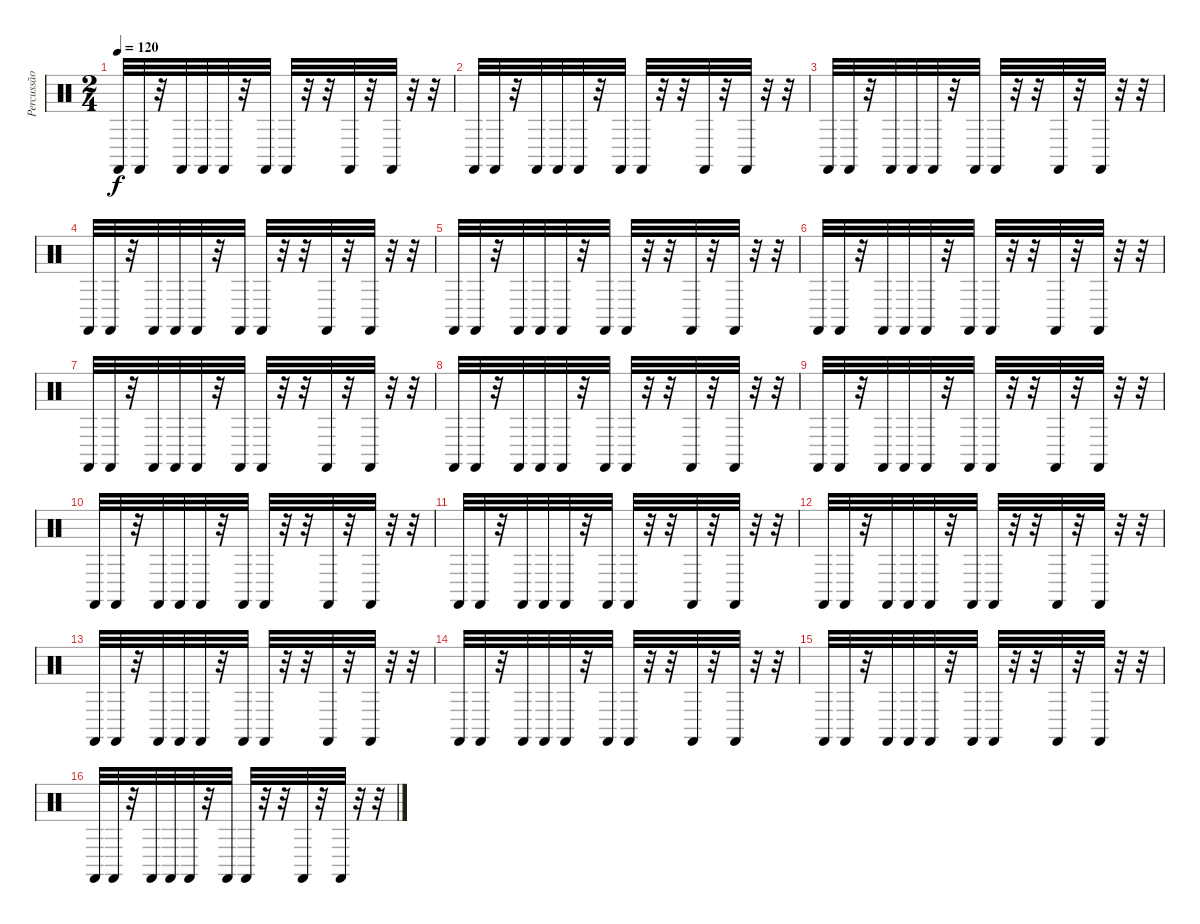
\track ("Percussão" "Percussão") {instrument percussion}
\staff {score}
\articulation defaults
\ts (2 4)
\tempo 120
\clef neutral
\ks c "Castanets (hit)".32{dy f} "Castanets (hit)".32
r.32 "Castanets (hit)".32 "Castanets (hit)".32 "Castanets (hit)".32 r.32 "Castanets (hit)".32 "Castanets (hit)".32 r.32 r.32 "Castanets (hit)".32 r.32 "Castanets (hit)".32 r.32 r.32 |
"Castanets (hit)".32 "Castanets (hit)".32 r.32 "Castanets (hit)".32 "Castanets (hit)".32 "Castanets (hit)".32 r.32 "Castanets (hit)".32 "Castanets (hit)".32 r.32 r.32 "Castanets (hit)".32 r.32 "Castanets (hit)".32 r.32 r.32 |
"Castanets (hit)".32 "Castanets (hit)".32 r.32 "Castanets (hit)".32 "Castanets (hit)".32 "Castanets (hit)".32 r.32 "Castanets (hit)".32 "Castanets (hit)".32 r.32 r.32 "Castanets (hit)".32 r.32 "Castanets (hit)".32 r.32 r.32 |
"Castanets (hit)".32 "Castanets (hit)".32 r.32 "Castanets (hit)".32 "Castanets (hit)".32 "Castanets (hit)".32 r.32 "Castanets (hit)".32 "Castanets (hit)".32 r.32 r.32 "Castanets (hit)".32 r.32 "Castanets (hit)".32 r.32 r.32 |
"Castanets (hit)".32 "Castanets (hit)".32 r.32 "Castanets (hit)".32 "Castanets (hit)".32 "Castanets (hit)".32 r.32 "Castanets (hit)".32 "Castanets (hit)".32 r.32 r.32 "Castanets (hit)".32 r.32 "Castanets (hit)".32 r.32 r.32 |
"Castanets (hit)".32 "Castanets (hit)".32 r.32 "Castanets (hit)".32 "Castanets (hit)".32 "Castanets (hit)".32 r.32 "Castanets (hit)".32 "Castanets (hit)".32 r.32 r.32 "Castanets (hit)".32 r.32 "Castanets (hit)".32 r.32 r.32 |
"Castanets (hit)".32 "Castanets (hit)".32 r.32 "Castanets (hit)".32 "Castanets (hit)".32 "Castanets (hit)".32 r.32 "Castanets (hit)".32 "Castanets (hit)".32 r.32 r.32 "Castanets (hit)".32 r.32 "Castanets (hit)".32 r.32 r.32 |
"Castanets (hit)".32 "Castanets (hit)".32 r.32 "Castanets (hit)".32 "Castanets (hit)".32 "Castanets (hit)".32 r.32 "Castanets (hit)".32 "Castanets (hit)".32 r.32 r.32 "Castanets (hit)".32 r.32 "Castanets (hit)".32 r.32 r.32 |
"Castanets (hit)".32 "Castanets (hit)".32 r.32 "Castanets (hit)".32 "Castanets (hit)".32 "Castanets (hit)".32 r.32 "Castanets (hit)".32 "Castanets (hit)".32 r.32 r.32 "Castanets (hit)".32 r.32 "Castanets (hit)".32 r.32 r.32 |
"Castanets (hit)".32 "Castanets (hit)".32 r.32 "Castanets (hit)".32 "Castanets (hit)".32 "Castanets (hit)".32 r.32 "Castanets (hit)".32 "Castanets (hit)".32 r.32 r.32 "Castanets (hit)".32 r.32 "Castanets (hit)".32 r.32 r.32 |
"Castanets (hit)".32 "Castanets (hit)".32 r.32 "Castanets (hit)".32 "Castanets (hit)".32 "Castanets (hit)".32 r.32 "Castanets (hit)".32 "Castanets (hit)".32 r.32 r.32 "Castanets (hit)".32 r.32 "Castanets (hit)".32 r.32 r.32 |
"Castanets (hit)".32 "Castanets (hit)".32 r.32 "Castanets (hit)".32 "Castanets (hit)".32 "Castanets (hit)".32 r.32 "Castanets (hit)".32 "Castanets (hit)".32 r.32 r.32 "Castanets (hit)".32 r.32 "Castanets (hit)".32 r.32 r.32 |
"Castanets (hit)".32 "Castanets (hit)".32 r.32 "Castanets (hit)".32 "Castanets (hit)".32 "Castanets (hit)".32 r.32 "Castanets (hit)".32 "Castanets (hit)".32 r.32 r.32 "Castanets (hit)".32 r.32 "Castanets (hit)".32 r.32 r.32 |
"Castanets (hit)".32 "Castanets (hit)".32 r.32 "Castanets (hit)".32 "Castanets (hit)".32 "Castanets (hit)".32 r.32 "Castanets (hit)".32 "Castanets (hit)".32 r.32 r.32 "Castanets (hit)".32 r.32 "Castanets (hit)".32 r.32 r.32 |
"Castanets (hit)".32 "Castanets (hit)".32 r.32 "Castanets (hit)".32 "Castanets (hit)".32 "Castanets (hit)".32 r.32 "Castanets (hit)".32 "Castanets (hit)".32 r.32 r.32 "Castanets (hit)".32 r.32 "Castanets (hit)".32 r.32 r.32 |
"Castanets (hit)".32 "Castanets (hit)".32 r.32 "Castanets (hit)".32 "Castanets (hit)".32 "Castanets (hit)".32 r.32 "Castanets (hit)".32 "Castanets (hit)".32 r.32 r.32 "Castanets (hit)".32 r.32 "Castanets (hit)".32 r.32 r.32
